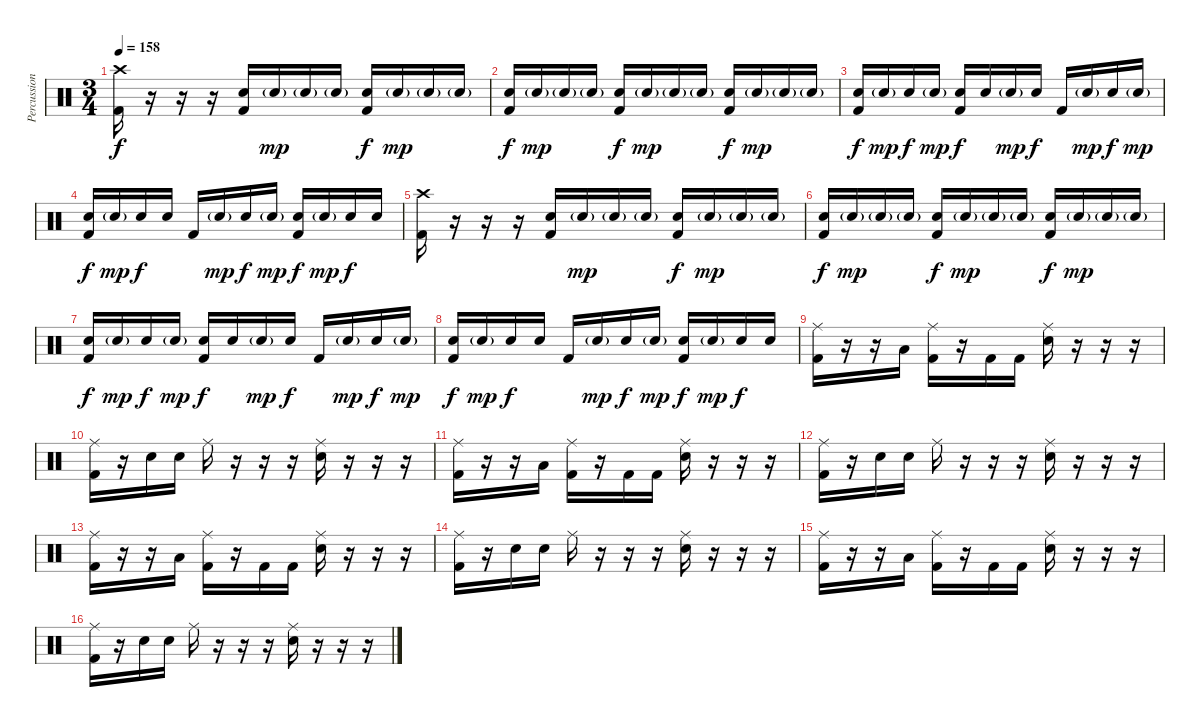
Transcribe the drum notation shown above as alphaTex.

\track ("Percussion" "Percussion") {instrument percussion}
\staff {score}
\articulation defaults
\ts (3 4)
\tempo 158
\clef neutral
\ks c
("Crash high (hit)" "Kick (hit) 2").16{dy f} r.16 r.16 r.16 ("Electric Snare (hit)" "Kick (hit) 2").16 "Electric Snare (hit)"{g}.16{dy mp} "Electric Snare (hit)"{g}.16 "Electric Snare (hit)"{g}.16 ("Electric Snare (hit)" "Kick (hit) 2").16{dy f} "Electric Snare (hit)"{g}.16{dy mp} "Electric Snare (hit)"{g}.16 "Electric Snare (hit)"{g}.16 |
("Electric Snare (hit)" "Kick (hit) 2").16{dy f} "Electric Snare (hit)"{g}.16{dy mp} "Electric Snare (hit)"{g}.16 "Electric Snare (hit)"{g}.16 ("Electric Snare (hit)" "Kick (hit) 2").16{dy f} "Electric Snare (hit)"{g}.16{dy mp} "Electric Snare (hit)"{g}.16 "Electric Snare (hit)"{g}.16 ("Electric Snare (hit)" "Kick (hit) 2").16{dy f} "Electric Snare (hit)"{g}.16{dy mp} "Electric Snare (hit)"{g}.16 "Electric Snare (hit)"{g}.16 |
("Electric Snare (hit)" "Kick (hit) 2").16{dy f} "Electric Snare (hit)"{g}.16{dy mp} "Electric Snare (hit)".16{dy f} "Electric Snare (hit)"{g}.16{dy mp} ("Electric Snare (hit)" "Kick (hit) 2").16{dy f} "Electric Snare (hit)".16 "Electric Snare (hit)"{g}.16{dy mp} "Electric Snare (hit)".16{dy f} "Kick (hit) 2".16 "Electric Snare (hit)"{g}.16{dy mp} "Electric Snare (hit)".16{dy f} "Electric Snare (hit)"{g}.16{dy mp} |
("Electric Snare (hit)" "Kick (hit) 2").16{dy f} "Electric Snare (hit)"{g}.16{dy mp} "Electric Snare (hit)".16{dy f} "Electric Snare (hit)".16 "Kick (hit) 2".16 "Electric Snare (hit)"{g}.16{dy mp} "Electric Snare (hit)".16{dy f} "Electric Snare (hit)"{g}.16{dy mp} ("Electric Snare (hit)" "Kick (hit) 2").16{dy f} "Electric Snare (hit)"{g}.16{dy mp} "Electric Snare (hit)".16{dy f} "Electric Snare (hit)".16 |
("Crash high (hit)" "Kick (hit) 2").16 r.16 r.16 r.16 ("Electric Snare (hit)" "Kick (hit) 2").16 "Electric Snare (hit)"{g}.16{dy mp} "Electric Snare (hit)"{g}.16 "Electric Snare (hit)"{g}.16 ("Electric Snare (hit)" "Kick (hit) 2").16{dy f} "Electric Snare (hit)"{g}.16{dy mp} "Electric Snare (hit)"{g}.16 "Electric Snare (hit)"{g}.16 |
("Electric Snare (hit)" "Kick (hit) 2").16{dy f} "Electric Snare (hit)"{g}.16{dy mp} "Electric Snare (hit)"{g}.16 "Electric Snare (hit)"{g}.16 ("Electric Snare (hit)" "Kick (hit) 2").16{dy f} "Electric Snare (hit)"{g}.16{dy mp} "Electric Snare (hit)"{g}.16 "Electric Snare (hit)"{g}.16 ("Electric Snare (hit)" "Kick (hit) 2").16{dy f} "Electric Snare (hit)"{g}.16{dy mp} "Electric Snare (hit)"{g}.16 "Electric Snare (hit)"{g}.16 |
("Electric Snare (hit)" "Kick (hit) 2").16{dy f} "Electric Snare (hit)"{g}.16{dy mp} "Electric Snare (hit)".16{dy f} "Electric Snare (hit)"{g}.16{dy mp} ("Electric Snare (hit)" "Kick (hit) 2").16{dy f} "Electric Snare (hit)".16 "Electric Snare (hit)"{g}.16{dy mp} "Electric Snare (hit)".16{dy f} "Kick (hit) 2".16 "Electric Snare (hit)"{g}.16{dy mp} "Electric Snare (hit)".16{dy f} "Electric Snare (hit)"{g}.16{dy mp} |
("Electric Snare (hit)" "Kick (hit) 2").16{dy f} "Electric Snare (hit)"{g}.16{dy mp} "Electric Snare (hit)".16{dy f} "Electric Snare (hit)".16 "Kick (hit) 2".16 "Electric Snare (hit)"{g}.16{dy mp} "Electric Snare (hit)".16{dy f} "Electric Snare (hit)"{g}.16{dy mp} ("Electric Snare (hit)" "Kick (hit) 2").16{dy f} "Electric Snare (hit)"{g}.16{dy mp} "Electric Snare (hit)".16{dy f} "Electric Snare (hit)".16 |
("Ride (middle)" "Kick (hit) 2").16 r.16 r.16 "Low Tom (hit)".16 ("Ride (middle)" "Kick (hit) 2").16 r.16 "Kick (hit) 2".16 "Kick (hit) 2".16 ("Ride (middle)" "Electric Snare (hit)").16 r.16 r.16 r.16 |
("Ride (middle)" "Kick (hit) 2").16 r.16 "Electric Snare (hit)".16 "Electric Snare (hit)".16 "Ride (middle)".16 r.16 r.16 r.16 ("Ride (middle)" "Electric Snare (hit)").16 r.16 r.16 r.16 |
("Ride (middle)" "Kick (hit) 2").16 r.16 r.16 "Low Tom (hit)".16 ("Ride (middle)" "Kick (hit) 2").16 r.16 "Kick (hit) 2".16 "Kick (hit) 2".16 ("Ride (middle)" "Electric Snare (hit)").16 r.16 r.16 r.16 |
("Ride (middle)" "Kick (hit) 2").16 r.16 "Electric Snare (hit)".16 "Electric Snare (hit)".16 "Ride (middle)".16 r.16 r.16 r.16 ("Ride (middle)" "Electric Snare (hit)").16 r.16 r.16 r.16 |
("Ride (middle)" "Kick (hit) 2").16 r.16 r.16 "Low Tom (hit)".16 ("Ride (middle)" "Kick (hit) 2").16 r.16 "Kick (hit) 2".16 "Kick (hit) 2".16 ("Ride (middle)" "Electric Snare (hit)").16 r.16 r.16 r.16 |
("Ride (middle)" "Kick (hit) 2").16 r.16 "Electric Snare (hit)".16 "Electric Snare (hit)".16 "Ride (middle)".16 r.16 r.16 r.16 ("Ride (middle)" "Electric Snare (hit)").16 r.16 r.16 r.16 |
("Ride (middle)" "Kick (hit) 2").16 r.16 r.16 "Low Tom (hit)".16 ("Ride (middle)" "Kick (hit) 2").16 r.16 "Kick (hit) 2".16 "Kick (hit) 2".16 ("Ride (middle)" "Electric Snare (hit)").16 r.16 r.16 r.16 |
("Ride (middle)" "Kick (hit) 2").16 r.16 "Electric Snare (hit)".16 "Electric Snare (hit)".16 "Ride (middle)".16 r.16 r.16 r.16 ("Ride (middle)" "Electric Snare (hit)").16 r.16 r.16 r.16
